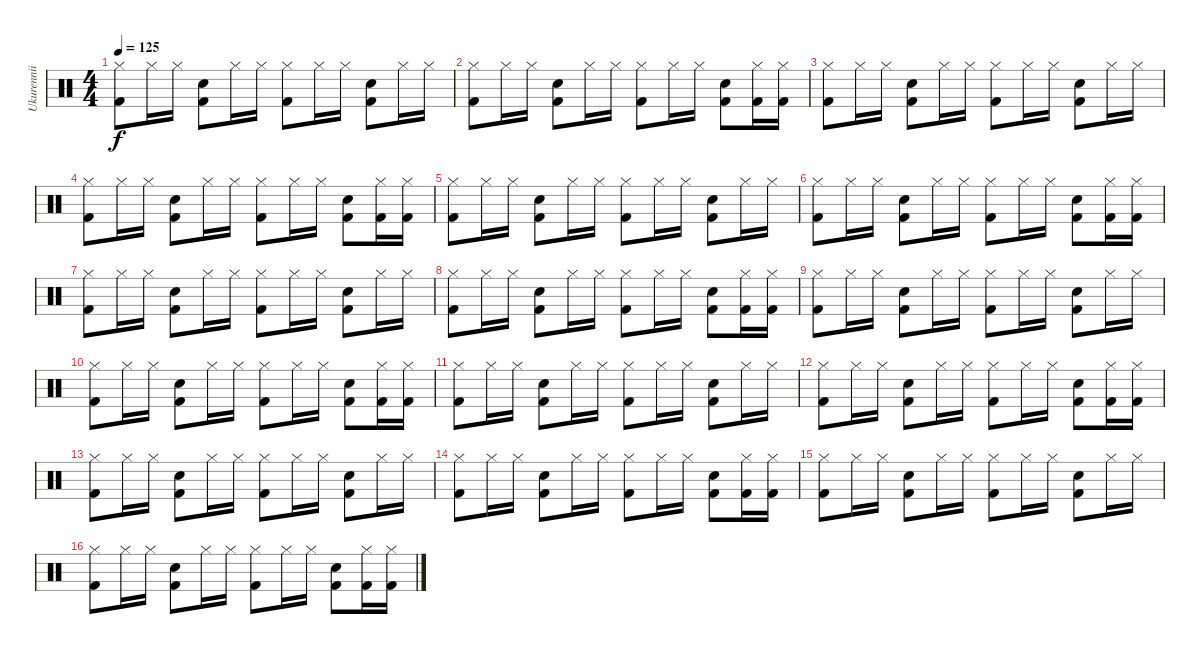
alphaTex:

\track ("Ukurennii Drums" "Ukurennii ") {instrument percussion}
\staff {score}
\articulation defaults
\ts (4 4)
\tempo 125
\clef neutral
\ks c
("Kick (hit) 2" "Hi-Hat (closed)").8{dy f} "Hi-Hat (closed)".16 "Hi-Hat (closed)".16 ("Kick (hit) 2" "Snare (hit) 2").8 "Hi-Hat (closed)".16 "Hi-Hat (closed)".16 ("Kick (hit) 2" "Hi-Hat (closed)").8 "Hi-Hat (closed)".16 "Hi-Hat (closed)".16 ("Snare (hit) 2" "Kick (hit) 2").8 "Hi-Hat (closed)".16 "Hi-Hat (closed)".16 |
("Hi-Hat (closed)" "Kick (hit) 2").8 "Hi-Hat (closed)".16 "Hi-Hat (closed)".16 ("Kick (hit) 2" "Snare (hit) 2").8 "Hi-Hat (closed)".16 "Hi-Hat (closed)".16 ("Hi-Hat (closed)" "Kick (hit) 2").8 "Hi-Hat (closed)".16 "Hi-Hat (closed)".16 ("Snare (hit) 2" "Kick (hit) 2").8 ("Hi-Hat (closed)" "Kick (hit) 2").16 ("Kick (hit) 2" "Hi-Hat (closed)").16 |
("Hi-Hat (closed)" "Kick (hit) 2").8 "Hi-Hat (closed)".16 "Hi-Hat (closed)".16 ("Snare (hit) 2" "Kick (hit) 2").8 "Hi-Hat (closed)".16 "Hi-Hat (closed)".16 ("Kick (hit) 2" "Hi-Hat (closed)").8 "Hi-Hat (closed)".16 "Hi-Hat (closed)".16 ("Kick (hit) 2" "Snare (hit) 2").8 "Hi-Hat (closed)".16 "Hi-Hat (closed)".16 |
("Kick (hit) 2" "Hi-Hat (closed)").8 "Hi-Hat (closed)".16 "Hi-Hat (closed)".16 ("Snare (hit) 2" "Kick (hit) 2").8 "Hi-Hat (closed)".16 "Hi-Hat (closed)".16 ("Hi-Hat (closed)" "Kick (hit) 2").8 "Hi-Hat (closed)".16 "Hi-Hat (closed)".16 ("Snare (hit) 2" "Kick (hit) 2").8 ("Kick (hit) 2" "Hi-Hat (closed)").16 ("Kick (hit) 2" "Hi-Hat (closed)").16 |
("Hi-Hat (closed)" "Kick (hit) 2").8 "Hi-Hat (closed)".16 "Hi-Hat (closed)".16 ("Snare (hit) 2" "Kick (hit) 2").8 "Hi-Hat (closed)".16 "Hi-Hat (closed)".16 ("Kick (hit) 2" "Hi-Hat (closed)").8 "Hi-Hat (closed)".16 "Hi-Hat (closed)".16 ("Kick (hit) 2" "Snare (hit) 2").8 "Hi-Hat (closed)".16 "Hi-Hat (closed)".16 |
("Kick (hit) 2" "Hi-Hat (closed)").8 "Hi-Hat (closed)".16 "Hi-Hat (closed)".16 ("Snare (hit) 2" "Kick (hit) 2").8 "Hi-Hat (closed)".16 "Hi-Hat (closed)".16 ("Hi-Hat (closed)" "Kick (hit) 2").8 "Hi-Hat (closed)".16 "Hi-Hat (closed)".16 ("Kick (hit) 2" "Snare (hit) 2").8 ("Hi-Hat (closed)" "Kick (hit) 2").16 ("Kick (hit) 2" "Hi-Hat (closed)").16 |
("Hi-Hat (closed)" "Kick (hit) 2").8 "Hi-Hat (closed)".16 "Hi-Hat (closed)".16 ("Kick (hit) 2" "Snare (hit) 2").8 "Hi-Hat (closed)".16 "Hi-Hat (closed)".16 ("Hi-Hat (closed)" "Kick (hit) 2").8 "Hi-Hat (closed)".16 "Hi-Hat (closed)".16 ("Snare (hit) 2" "Kick (hit) 2").8 "Hi-Hat (closed)".16 "Hi-Hat (closed)".16 |
("Kick (hit) 2" "Hi-Hat (closed)").8 "Hi-Hat (closed)".16 "Hi-Hat (closed)".16 ("Kick (hit) 2" "Snare (hit) 2").8 "Hi-Hat (closed)".16 "Hi-Hat (closed)".16 ("Hi-Hat (closed)" "Kick (hit) 2").8 "Hi-Hat (closed)".16 "Hi-Hat (closed)".16 ("Snare (hit) 2" "Kick (hit) 2").8 ("Hi-Hat (closed)" "Kick (hit) 2").16 ("Kick (hit) 2" "Hi-Hat (closed)").16 |
("Kick (hit) 2" "Hi-Hat (closed)").8 "Hi-Hat (closed)".16 "Hi-Hat (closed)".16 ("Kick (hit) 2" "Snare (hit) 2").8 "Hi-Hat (closed)".16 "Hi-Hat (closed)".16 ("Hi-Hat (closed)" "Kick (hit) 2").8 "Hi-Hat (closed)".16 "Hi-Hat (closed)".16 ("Snare (hit) 2" "Kick (hit) 2").8 "Hi-Hat (closed)".16 "Hi-Hat (closed)".16 |
("Hi-Hat (closed)" "Kick (hit) 2").8 "Hi-Hat (closed)".16 "Hi-Hat (closed)".16 ("Snare (hit) 2" "Kick (hit) 2").8 "Hi-Hat (closed)".16 "Hi-Hat (closed)".16 ("Kick (hit) 2" "Hi-Hat (closed)").8 "Hi-Hat (closed)".16 "Hi-Hat (closed)".16 ("Snare (hit) 2" "Kick (hit) 2").8 ("Kick (hit) 2" "Hi-Hat (closed)").16 ("Hi-Hat (closed)" "Kick (hit) 2").16 |
("Kick (hit) 2" "Hi-Hat (closed)").8 "Hi-Hat (closed)".16 "Hi-Hat (closed)".16 ("Snare (hit) 2" "Kick (hit) 2").8 "Hi-Hat (closed)".16 "Hi-Hat (closed)".16 ("Kick (hit) 2" "Hi-Hat (closed)").8 "Hi-Hat (closed)".16 "Hi-Hat (closed)".16 ("Kick (hit) 2" "Snare (hit) 2").8 "Hi-Hat (closed)".16 "Hi-Hat (closed)".16 |
("Hi-Hat (closed)" "Kick (hit) 2").8 "Hi-Hat (closed)".16 "Hi-Hat (closed)".16 ("Snare (hit) 2" "Kick (hit) 2").8 "Hi-Hat (closed)".16 "Hi-Hat (closed)".16 ("Kick (hit) 2" "Hi-Hat (closed)").8 "Hi-Hat (closed)".16 "Hi-Hat (closed)".16 ("Kick (hit) 2" "Snare (hit) 2").8 ("Kick (hit) 2" "Hi-Hat (closed)").16 ("Hi-Hat (closed)" "Kick (hit) 2").16 |
("Kick (hit) 2" "Hi-Hat (closed)").8 "Hi-Hat (closed)".16 "Hi-Hat (closed)".16 ("Kick (hit) 2" "Snare (hit) 2").8 "Hi-Hat (closed)".16 "Hi-Hat (closed)".16 ("Hi-Hat (closed)" "Kick (hit) 2").8 "Hi-Hat (closed)".16 "Hi-Hat (closed)".16 ("Snare (hit) 2" "Kick (hit) 2").8 "Hi-Hat (closed)".16 "Hi-Hat (closed)".16 |
("Hi-Hat (closed)" "Kick (hit) 2").8 "Hi-Hat (closed)".16 "Hi-Hat (closed)".16 ("Snare (hit) 2" "Kick (hit) 2").8 "Hi-Hat (closed)".16 "Hi-Hat (closed)".16 ("Kick (hit) 2" "Hi-Hat (closed)").8 "Hi-Hat (closed)".16 "Hi-Hat (closed)".16 ("Snare (hit) 2" "Kick (hit) 2").8 ("Kick (hit) 2" "Hi-Hat (closed)").16 ("Hi-Hat (closed)" "Kick (hit) 2").16 |
("Kick (hit) 2" "Hi-Hat (closed)").8 "Hi-Hat (closed)".16 "Hi-Hat (closed)".16 ("Snare (hit) 2" "Kick (hit) 2").8 "Hi-Hat (closed)".16 "Hi-Hat (closed)".16 ("Kick (hit) 2" "Hi-Hat (closed)").8 "Hi-Hat (closed)".16 "Hi-Hat (closed)".16 ("Kick (hit) 2" "Snare (hit) 2").8 "Hi-Hat (closed)".16 "Hi-Hat (closed)".16 |
("Hi-Hat (closed)" "Kick (hit) 2").8 "Hi-Hat (closed)".16 "Hi-Hat (closed)".16 ("Snare (hit) 2" "Kick (hit) 2").8 "Hi-Hat (closed)".16 "Hi-Hat (closed)".16 ("Kick (hit) 2" "Hi-Hat (closed)").8 "Hi-Hat (closed)".16 "Hi-Hat (closed)".16 ("Kick (hit) 2" "Snare (hit) 2").8 ("Kick (hit) 2" "Hi-Hat (closed)").16 ("Hi-Hat (closed)" "Kick (hit) 2").16
